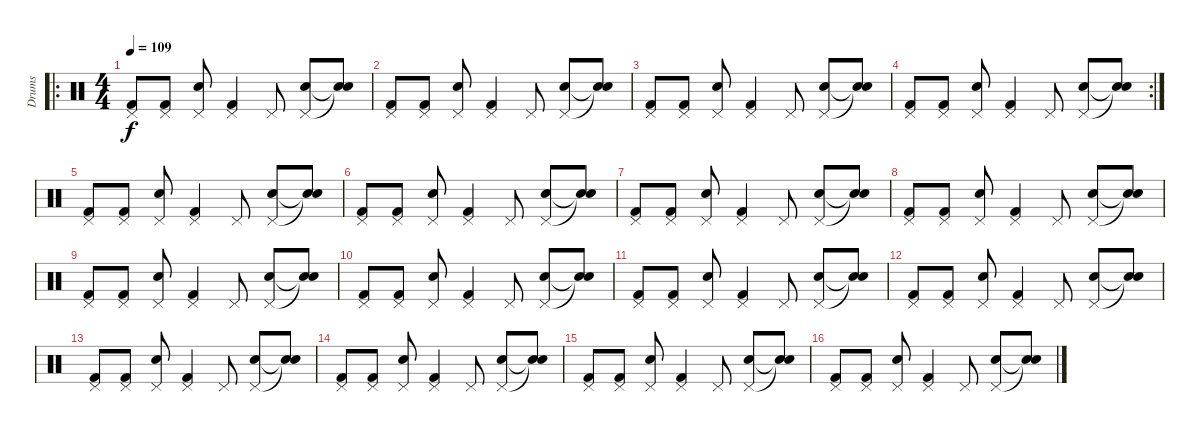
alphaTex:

\track ("Drums" "Drums") {instrument percussion}
\staff {score}
\articulation defaults
\ro
\ts (4 4)
\tempo 109
\clef neutral
\ks c
("Pedal Hi-Hat (hit)" "Kick (hit) 2").8{dy f} ("Pedal Hi-Hat (hit)" "Kick (hit) 2").8 ("Pedal Hi-Hat (hit)" "Snare (hit) 2").8 ("Pedal Hi-Hat (hit)" "Kick (hit) 2").4 "Pedal Hi-Hat (hit)".8 ("Pedal Hi-Hat (hit)" "Snare (hit) 2").8 ("Snare (hit)"{t} "Snare (hit)"{t}).8 |
("Pedal Hi-Hat (hit)" "Kick (hit) 2").8 ("Pedal Hi-Hat (hit)" "Kick (hit) 2").8 ("Pedal Hi-Hat (hit)" "Snare (hit) 2").8 ("Pedal Hi-Hat (hit)" "Kick (hit) 2").4 "Pedal Hi-Hat (hit)".8 ("Pedal Hi-Hat (hit)" "Snare (hit) 2").8 ("Snare (hit)"{t} "Snare (hit)"{t}).8 |
("Pedal Hi-Hat (hit)" "Kick (hit) 2").8 ("Pedal Hi-Hat (hit)" "Kick (hit) 2").8 ("Pedal Hi-Hat (hit)" "Snare (hit) 2").8 ("Pedal Hi-Hat (hit)" "Kick (hit) 2").4 "Pedal Hi-Hat (hit)".8 ("Pedal Hi-Hat (hit)" "Snare (hit) 2").8 ("Snare (hit)"{t} "Snare (hit)"{t}).8 |
\rc 2
("Pedal Hi-Hat (hit)" "Kick (hit) 2").8 ("Pedal Hi-Hat (hit)" "Kick (hit) 2").8 ("Pedal Hi-Hat (hit)" "Snare (hit) 2").8 ("Pedal Hi-Hat (hit)" "Kick (hit) 2").4 "Pedal Hi-Hat (hit)".8 ("Pedal Hi-Hat (hit)" "Snare (hit) 2").8 ("Snare (hit)"{t} "Snare (hit)"{t}).8 |
("Pedal Hi-Hat (hit)" "Kick (hit) 2").8 ("Pedal Hi-Hat (hit)" "Kick (hit) 2").8 ("Pedal Hi-Hat (hit)" "Snare (hit) 2").8 ("Pedal Hi-Hat (hit)" "Kick (hit) 2").4 "Pedal Hi-Hat (hit)".8 ("Pedal Hi-Hat (hit)" "Snare (hit) 2").8 ("Snare (hit)"{t} "Snare (hit)"{t}).8 |
("Pedal Hi-Hat (hit)" "Kick (hit) 2").8 ("Pedal Hi-Hat (hit)" "Kick (hit) 2").8 ("Pedal Hi-Hat (hit)" "Snare (hit) 2").8 ("Pedal Hi-Hat (hit)" "Kick (hit) 2").4 "Pedal Hi-Hat (hit)".8 ("Pedal Hi-Hat (hit)" "Snare (hit) 2").8 ("Snare (hit)"{t} "Snare (hit)"{t}).8 |
("Pedal Hi-Hat (hit)" "Kick (hit) 2").8 ("Pedal Hi-Hat (hit)" "Kick (hit) 2").8 ("Pedal Hi-Hat (hit)" "Snare (hit) 2").8 ("Pedal Hi-Hat (hit)" "Kick (hit) 2").4 "Pedal Hi-Hat (hit)".8 ("Pedal Hi-Hat (hit)" "Snare (hit) 2").8 ("Snare (hit)"{t} "Snare (hit)"{t}).8 |
("Pedal Hi-Hat (hit)" "Kick (hit) 2").8 ("Pedal Hi-Hat (hit)" "Kick (hit) 2").8 ("Pedal Hi-Hat (hit)" "Snare (hit) 2").8 ("Pedal Hi-Hat (hit)" "Kick (hit) 2").4 "Pedal Hi-Hat (hit)".8 ("Pedal Hi-Hat (hit)" "Snare (hit) 2").8 ("Snare (hit)"{t} "Snare (hit)"{t}).8 |
("Pedal Hi-Hat (hit)" "Kick (hit) 2").8 ("Pedal Hi-Hat (hit)" "Kick (hit) 2").8 ("Pedal Hi-Hat (hit)" "Snare (hit) 2").8 ("Pedal Hi-Hat (hit)" "Kick (hit) 2").4 "Pedal Hi-Hat (hit)".8 ("Pedal Hi-Hat (hit)" "Snare (hit) 2").8 ("Snare (hit)"{t} "Snare (hit)"{t}).8 |
("Pedal Hi-Hat (hit)" "Kick (hit) 2").8 ("Pedal Hi-Hat (hit)" "Kick (hit) 2").8 ("Pedal Hi-Hat (hit)" "Snare (hit) 2").8 ("Pedal Hi-Hat (hit)" "Kick (hit) 2").4 "Pedal Hi-Hat (hit)".8 ("Pedal Hi-Hat (hit)" "Snare (hit) 2").8 ("Snare (hit)"{t} "Snare (hit)"{t}).8 |
("Pedal Hi-Hat (hit)" "Kick (hit) 2").8 ("Pedal Hi-Hat (hit)" "Kick (hit) 2").8 ("Pedal Hi-Hat (hit)" "Snare (hit) 2").8 ("Pedal Hi-Hat (hit)" "Kick (hit) 2").4 "Pedal Hi-Hat (hit)".8 ("Pedal Hi-Hat (hit)" "Snare (hit) 2").8 ("Snare (hit)"{t} "Snare (hit)"{t}).8 |
("Pedal Hi-Hat (hit)" "Kick (hit) 2").8 ("Pedal Hi-Hat (hit)" "Kick (hit) 2").8 ("Pedal Hi-Hat (hit)" "Snare (hit) 2").8 ("Pedal Hi-Hat (hit)" "Kick (hit) 2").4 "Pedal Hi-Hat (hit)".8 ("Pedal Hi-Hat (hit)" "Snare (hit) 2").8 ("Snare (hit)"{t} "Snare (hit)"{t}).8 |
("Pedal Hi-Hat (hit)" "Kick (hit) 2").8 ("Pedal Hi-Hat (hit)" "Kick (hit) 2").8 ("Pedal Hi-Hat (hit)" "Snare (hit) 2").8 ("Pedal Hi-Hat (hit)" "Kick (hit) 2").4 "Pedal Hi-Hat (hit)".8 ("Pedal Hi-Hat (hit)" "Snare (hit) 2").8 ("Snare (hit)"{t} "Snare (hit)"{t}).8 |
("Pedal Hi-Hat (hit)" "Kick (hit) 2").8 ("Pedal Hi-Hat (hit)" "Kick (hit) 2").8 ("Pedal Hi-Hat (hit)" "Snare (hit) 2").8 ("Pedal Hi-Hat (hit)" "Kick (hit) 2").4 "Pedal Hi-Hat (hit)".8 ("Pedal Hi-Hat (hit)" "Snare (hit) 2").8 ("Snare (hit)"{t} "Snare (hit)"{t}).8 |
("Pedal Hi-Hat (hit)" "Kick (hit) 2").8 ("Pedal Hi-Hat (hit)" "Kick (hit) 2").8 ("Pedal Hi-Hat (hit)" "Snare (hit) 2").8 ("Pedal Hi-Hat (hit)" "Kick (hit) 2").4 "Pedal Hi-Hat (hit)".8 ("Pedal Hi-Hat (hit)" "Snare (hit) 2").8 ("Snare (hit)"{t} "Snare (hit)"{t}).8 |
("Pedal Hi-Hat (hit)" "Kick (hit) 2").8 ("Pedal Hi-Hat (hit)" "Kick (hit) 2").8 ("Pedal Hi-Hat (hit)" "Snare (hit) 2").8 ("Pedal Hi-Hat (hit)" "Kick (hit) 2").4 "Pedal Hi-Hat (hit)".8 ("Pedal Hi-Hat (hit)" "Snare (hit) 2").8 ("Snare (hit)"{t} "Snare (hit)"{t}).8
